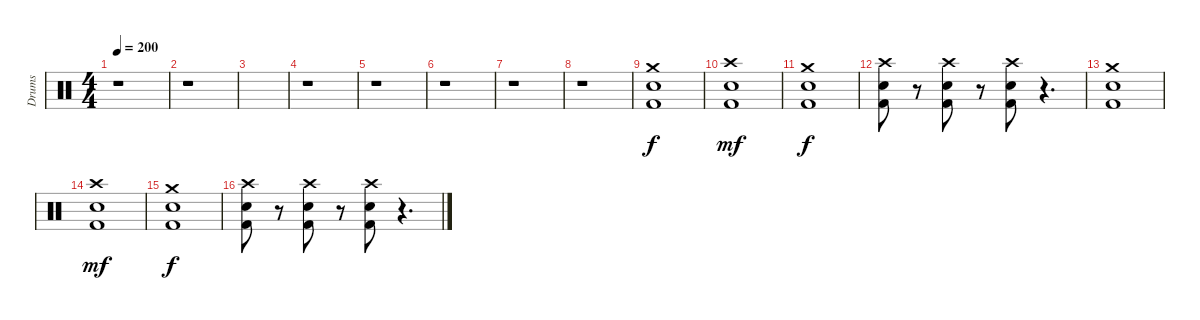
\track ("Drums" "Drums") {instrument percussion}
\staff {score}
\articulation defaults
\ts (4 4)
\tempo 200
\clef neutral
\ks c
r.1{dy f} |
r.1 |
|
r.1 |
r.1 |
r.1 |
r.1 |
r.1 |
("Crash medium (hit)" "Snare (hit) 2" "Kick (hit) 2").1 |
("Crash high (hit)" "Snare (hit) 2" "Kick (hit) 2").1{dy mf} |
("Crash medium (hit)" "Snare (hit) 2" "Kick (hit) 2").1{dy f} |
("Crash high (hit)" "Snare (hit) 2" "Kick (hit) 2").8 r.8 ("Crash high (hit)" "Snare (hit) 2" "Kick (hit) 2").8 r.8 ("Crash high (hit)" "Snare (hit) 2" "Kick (hit) 2").8 r.4{d} |
("Crash medium (hit)" "Snare (hit) 2" "Kick (hit) 2").1 |
("Crash high (hit)" "Snare (hit) 2" "Kick (hit) 2").1{dy mf} |
("Crash medium (hit)" "Snare (hit) 2" "Kick (hit) 2").1{dy f} |
("Crash high (hit)" "Snare (hit) 2" "Kick (hit) 2").8 r.8 ("Crash high (hit)" "Snare (hit) 2" "Kick (hit) 2").8 r.8 ("Crash high (hit)" "Snare (hit) 2" "Kick (hit) 2").8 r.4{d}
